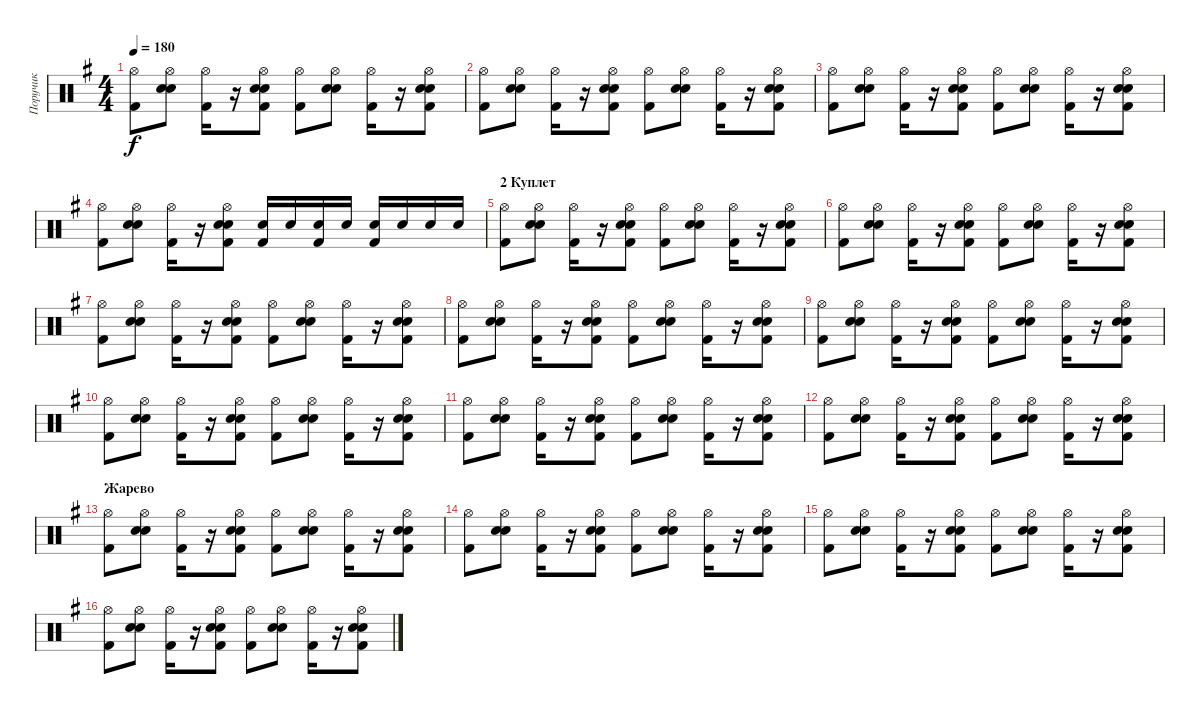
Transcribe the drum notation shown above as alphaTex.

\track ("Поручик" "Поручик") {instrument percussion}
\staff {score}
\articulation defaults
\ts (4 4)
\tempo 180
\clef neutral
\ks g
("Kick (hit) 2" "Hi-Hat (open)").8{dy f} ("Hi-Hat (open)" "Electric Snare (hit)" "Electric Snare (hit)").8 ("Kick (hit) 2" "Hi-Hat (open)").16 r.16 ("Kick (hit) 2" "Hi-Hat (open)" "Electric Snare (hit)" "Electric Snare (hit)").8 ("Kick (hit) 2" "Hi-Hat (open)").8 ("Hi-Hat (open)" "Electric Snare (hit)" "Electric Snare (hit)").8 ("Kick (hit) 2" "Hi-Hat (open)").16 r.16 ("Kick (hit) 2" "Hi-Hat (open)" "Electric Snare (hit)" "Electric Snare (hit)").8 |
("Kick (hit) 2" "Hi-Hat (open)").8 ("Hi-Hat (open)" "Electric Snare (hit)" "Electric Snare (hit)").8 ("Kick (hit) 2" "Hi-Hat (open)").16 r.16 ("Kick (hit) 2" "Hi-Hat (open)" "Electric Snare (hit)" "Electric Snare (hit)").8 ("Kick (hit) 2" "Hi-Hat (open)").8 ("Hi-Hat (open)" "Electric Snare (hit)" "Electric Snare (hit)").8 ("Kick (hit) 2" "Hi-Hat (open)").16 r.16 ("Kick (hit) 2" "Hi-Hat (open)" "Electric Snare (hit)" "Electric Snare (hit)").8 |
("Kick (hit) 2" "Hi-Hat (open)").8 ("Hi-Hat (open)" "Electric Snare (hit)" "Electric Snare (hit)").8 ("Kick (hit) 2" "Hi-Hat (open)").16 r.16 ("Kick (hit) 2" "Hi-Hat (open)" "Electric Snare (hit)" "Electric Snare (hit)").8 ("Kick (hit) 2" "Hi-Hat (open)").8 ("Hi-Hat (open)" "Electric Snare (hit)" "Electric Snare (hit)").8 ("Kick (hit) 2" "Hi-Hat (open)").16 r.16 ("Kick (hit) 2" "Hi-Hat (open)" "Electric Snare (hit)" "Electric Snare (hit)").8 |
("Kick (hit) 2" "Hi-Hat (open)").8 ("Hi-Hat (open)" "Electric Snare (hit)" "Electric Snare (hit)").8 ("Kick (hit) 2" "Hi-Hat (open)").16 r.16 ("Kick (hit) 2" "Hi-Hat (open)" "Electric Snare (hit)" "Electric Snare (hit)").8 ("Kick (hit) 2" "Electric Snare (hit)").16 "Electric Snare (hit)".16 ("Kick (hit) 2" "Electric Snare (hit)").16 "Electric Snare (hit)".16 ("Kick (hit) 2" "Electric Snare (hit)").16 "Electric Snare (hit)".16 "Electric Snare (hit)".16 "Electric Snare (hit)".16 |
\section ("" "2 Куплет")
("Kick (hit) 2" "Hi-Hat (open)").8 ("Hi-Hat (open)" "Electric Snare (hit)" "Electric Snare (hit)").8 ("Kick (hit) 2" "Hi-Hat (open)").16 r.16 ("Kick (hit) 2" "Hi-Hat (open)" "Electric Snare (hit)" "Electric Snare (hit)").8 ("Kick (hit) 2" "Hi-Hat (open)").8 ("Hi-Hat (open)" "Electric Snare (hit)" "Electric Snare (hit)").8 ("Kick (hit) 2" "Hi-Hat (open)").16 r.16 ("Kick (hit) 2" "Hi-Hat (open)" "Electric Snare (hit)" "Electric Snare (hit)").8 |
("Kick (hit) 2" "Hi-Hat (open)").8 ("Hi-Hat (open)" "Electric Snare (hit)" "Electric Snare (hit)").8 ("Kick (hit) 2" "Hi-Hat (open)").16 r.16 ("Kick (hit) 2" "Hi-Hat (open)" "Electric Snare (hit)" "Electric Snare (hit)").8 ("Kick (hit) 2" "Hi-Hat (open)").8 ("Hi-Hat (open)" "Electric Snare (hit)" "Electric Snare (hit)").8 ("Kick (hit) 2" "Hi-Hat (open)").16 r.16 ("Kick (hit) 2" "Hi-Hat (open)" "Electric Snare (hit)" "Electric Snare (hit)").8 |
("Kick (hit) 2" "Hi-Hat (open)").8 ("Hi-Hat (open)" "Electric Snare (hit)" "Electric Snare (hit)").8 ("Kick (hit) 2" "Hi-Hat (open)").16 r.16 ("Kick (hit) 2" "Hi-Hat (open)" "Electric Snare (hit)" "Electric Snare (hit)").8 ("Kick (hit) 2" "Hi-Hat (open)").8 ("Hi-Hat (open)" "Electric Snare (hit)" "Electric Snare (hit)").8 ("Kick (hit) 2" "Hi-Hat (open)").16 r.16 ("Kick (hit) 2" "Hi-Hat (open)" "Electric Snare (hit)" "Electric Snare (hit)").8 |
("Kick (hit) 2" "Hi-Hat (open)").8 ("Hi-Hat (open)" "Electric Snare (hit)" "Electric Snare (hit)").8 ("Kick (hit) 2" "Hi-Hat (open)").16 r.16 ("Kick (hit) 2" "Hi-Hat (open)" "Electric Snare (hit)" "Electric Snare (hit)").8 ("Kick (hit) 2" "Hi-Hat (open)").8 ("Hi-Hat (open)" "Electric Snare (hit)" "Electric Snare (hit)").8 ("Kick (hit) 2" "Hi-Hat (open)").16 r.16 ("Kick (hit) 2" "Hi-Hat (open)" "Electric Snare (hit)" "Electric Snare (hit)").8 |
("Kick (hit) 2" "Hi-Hat (open)").8 ("Hi-Hat (open)" "Electric Snare (hit)" "Electric Snare (hit)").8 ("Kick (hit) 2" "Hi-Hat (open)").16 r.16 ("Kick (hit) 2" "Hi-Hat (open)" "Electric Snare (hit)" "Electric Snare (hit)").8 ("Kick (hit) 2" "Hi-Hat (open)").8 ("Hi-Hat (open)" "Electric Snare (hit)" "Electric Snare (hit)").8 ("Kick (hit) 2" "Hi-Hat (open)").16 r.16 ("Kick (hit) 2" "Hi-Hat (open)" "Electric Snare (hit)" "Electric Snare (hit)").8 |
("Kick (hit) 2" "Hi-Hat (open)").8 ("Hi-Hat (open)" "Electric Snare (hit)" "Electric Snare (hit)").8 ("Kick (hit) 2" "Hi-Hat (open)").16 r.16 ("Kick (hit) 2" "Hi-Hat (open)" "Electric Snare (hit)" "Electric Snare (hit)").8 ("Kick (hit) 2" "Hi-Hat (open)").8 ("Hi-Hat (open)" "Electric Snare (hit)" "Electric Snare (hit)").8 ("Kick (hit) 2" "Hi-Hat (open)").16 r.16 ("Kick (hit) 2" "Hi-Hat (open)" "Electric Snare (hit)" "Electric Snare (hit)").8 |
("Kick (hit) 2" "Hi-Hat (open)").8 ("Hi-Hat (open)" "Electric Snare (hit)" "Electric Snare (hit)").8 ("Kick (hit) 2" "Hi-Hat (open)").16 r.16 ("Kick (hit) 2" "Hi-Hat (open)" "Electric Snare (hit)" "Electric Snare (hit)").8 ("Kick (hit) 2" "Hi-Hat (open)").8 ("Hi-Hat (open)" "Electric Snare (hit)" "Electric Snare (hit)").8 ("Kick (hit) 2" "Hi-Hat (open)").16 r.16 ("Kick (hit) 2" "Hi-Hat (open)" "Electric Snare (hit)" "Electric Snare (hit)").8 |
("Kick (hit) 2" "Hi-Hat (open)").8 ("Hi-Hat (open)" "Electric Snare (hit)" "Electric Snare (hit)").8 ("Kick (hit) 2" "Hi-Hat (open)").16 r.16 ("Kick (hit) 2" "Hi-Hat (open)" "Electric Snare (hit)" "Electric Snare (hit)").8 ("Kick (hit) 2" "Hi-Hat (open)").8 ("Hi-Hat (open)" "Electric Snare (hit)" "Electric Snare (hit)").8 ("Kick (hit) 2" "Hi-Hat (open)").16 r.16 ("Kick (hit) 2" "Hi-Hat (open)" "Electric Snare (hit)" "Electric Snare (hit)").8 |
\section ("" "Жарево")
("Kick (hit) 2" "Hi-Hat (open)").8 ("Hi-Hat (open)" "Electric Snare (hit)" "Electric Snare (hit)").8 ("Kick (hit) 2" "Hi-Hat (open)").16 r.16 ("Kick (hit) 2" "Hi-Hat (open)" "Electric Snare (hit)" "Electric Snare (hit)").8 ("Kick (hit) 2" "Hi-Hat (open)").8 ("Hi-Hat (open)" "Electric Snare (hit)" "Electric Snare (hit)").8 ("Kick (hit) 2" "Hi-Hat (open)").16 r.16 ("Kick (hit) 2" "Hi-Hat (open)" "Electric Snare (hit)" "Electric Snare (hit)").8 |
("Kick (hit) 2" "Hi-Hat (open)").8 ("Hi-Hat (open)" "Electric Snare (hit)" "Electric Snare (hit)").8 ("Kick (hit) 2" "Hi-Hat (open)").16 r.16 ("Kick (hit) 2" "Hi-Hat (open)" "Electric Snare (hit)" "Electric Snare (hit)").8 ("Kick (hit) 2" "Hi-Hat (open)").8 ("Hi-Hat (open)" "Electric Snare (hit)" "Electric Snare (hit)").8 ("Kick (hit) 2" "Hi-Hat (open)").16 r.16 ("Kick (hit) 2" "Hi-Hat (open)" "Electric Snare (hit)" "Electric Snare (hit)").8 |
("Kick (hit) 2" "Hi-Hat (open)").8 ("Hi-Hat (open)" "Electric Snare (hit)" "Electric Snare (hit)").8 ("Kick (hit) 2" "Hi-Hat (open)").16 r.16 ("Kick (hit) 2" "Hi-Hat (open)" "Electric Snare (hit)" "Electric Snare (hit)").8 ("Kick (hit) 2" "Hi-Hat (open)").8 ("Hi-Hat (open)" "Electric Snare (hit)" "Electric Snare (hit)").8 ("Kick (hit) 2" "Hi-Hat (open)").16 r.16 ("Kick (hit) 2" "Hi-Hat (open)" "Electric Snare (hit)" "Electric Snare (hit)").8 |
("Kick (hit) 2" "Hi-Hat (open)").8 ("Hi-Hat (open)" "Electric Snare (hit)" "Electric Snare (hit)").8 ("Kick (hit) 2" "Hi-Hat (open)").16 r.16 ("Kick (hit) 2" "Hi-Hat (open)" "Electric Snare (hit)" "Electric Snare (hit)").8 ("Kick (hit) 2" "Hi-Hat (open)").8 ("Hi-Hat (open)" "Electric Snare (hit)" "Electric Snare (hit)").8 ("Kick (hit) 2" "Hi-Hat (open)").16 r.16 ("Kick (hit) 2" "Hi-Hat (open)" "Electric Snare (hit)" "Electric Snare (hit)").8
